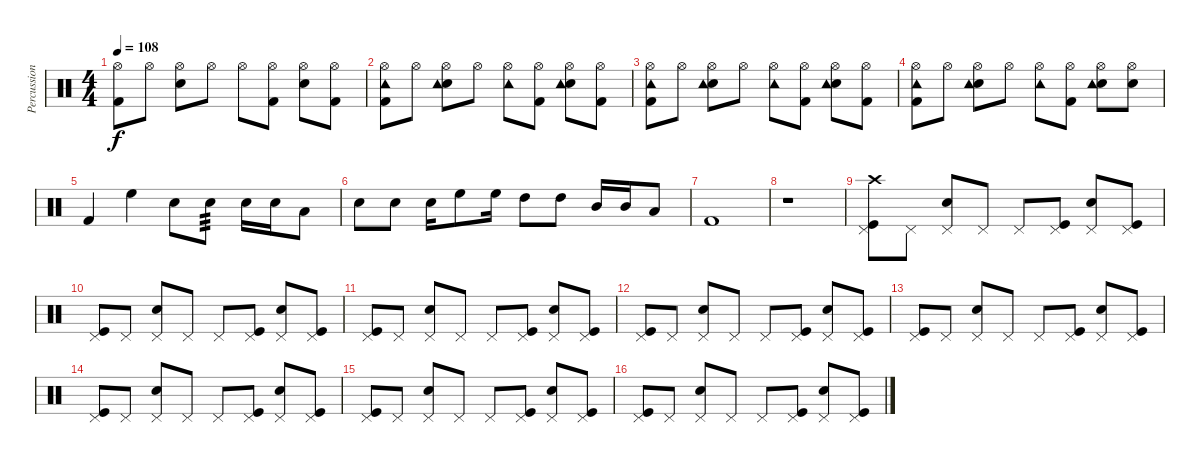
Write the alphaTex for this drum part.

\track ("Percussion" "Percussion") {instrument percussion}
\staff {score}
\articulation defaults
\ts (4 4)
\tempo 108
\clef neutral
\ks c
("Kick (hit) 2" "Hi-Hat (open)").8{dy f} "Hi-Hat (open)".8 ("Hi-Hat (open)" "Electric Snare (hit)").8 "Hi-Hat (open)".8 "Hi-Hat (open)".8 ("Hi-Hat (open)" "Kick (hit) 2").8 ("Hi-Hat (open)" "Electric Snare (hit)").8 ("Hi-Hat (open)" "Kick (hit) 2").8 |
("Kick (hit) 2" "Hi-Hat (open)" "Tambourine (hit)").8 "Hi-Hat (open)".8 ("Hi-Hat (open)" "Electric Snare (hit)" "Tambourine (hit)").8 "Hi-Hat (open)".8 ("Hi-Hat (open)" "Tambourine (hit)").8 ("Hi-Hat (open)" "Kick (hit) 2").8 ("Hi-Hat (open)" "Electric Snare (hit)" "Tambourine (hit)").8 ("Hi-Hat (open)" "Kick (hit) 2").8 |
("Kick (hit) 2" "Hi-Hat (open)" "Tambourine (hit)").8 "Hi-Hat (open)".8 ("Hi-Hat (open)" "Electric Snare (hit)" "Tambourine (hit)").8 "Hi-Hat (open)".8 ("Hi-Hat (open)" "Tambourine (hit)").8 ("Hi-Hat (open)" "Kick (hit) 2").8 ("Hi-Hat (open)" "Electric Snare (hit)" "Tambourine (hit)").8 ("Hi-Hat (open)" "Kick (hit) 2").8 |
("Kick (hit) 2" "Hi-Hat (open)" "Tambourine (hit)").8 "Hi-Hat (open)".8 ("Hi-Hat (open)" "Electric Snare (hit)" "Tambourine (hit)").8 "Hi-Hat (open)".8 ("Hi-Hat (open)" "Tambourine (hit)").8 ("Hi-Hat (open)" "Kick (hit) 2").8 ("Hi-Hat (open)" "Electric Snare (hit)" "Tambourine (hit)").8 ("Hi-Hat (open)" "Electric Snare (hit)").8 |
"Kick (hit) 2".4 "High Floor Tom (hit)".4 "Electric Snare (hit)".8 "Electric Snare (hit)".8{tp 3} "Electric Snare (hit)".16 "Electric Snare (hit)".16 "Low Tom (hit)".8 |
"Electric Snare (hit)".8 "Electric Snare (hit)".8 "Electric Snare (hit)".16 "High Floor Tom (hit)".8 "High Floor Tom (hit)".16 "High Tom (hit)".8 "High Tom (hit)".8 "Mid Tom (hit)".16 "Mid Tom (hit)".16 "Low Tom (hit)".8 |
"Kick (hit) 2".1 |
r.1 |
("Kick (hit)" "Pedal Hi-Hat (hit)" "Crash high (hit)").8 "Pedal Hi-Hat (hit)".8 ("Pedal Hi-Hat (hit)" "Electric Snare (hit)").8 "Pedal Hi-Hat (hit)".8 "Pedal Hi-Hat (hit)".8 ("Pedal Hi-Hat (hit)" "Kick (hit)").8 ("Pedal Hi-Hat (hit)" "Electric Snare (hit)").8 ("Pedal Hi-Hat (hit)" "Kick (hit)").8 |
("Kick (hit)" "Pedal Hi-Hat (hit)").8 "Pedal Hi-Hat (hit)".8 ("Pedal Hi-Hat (hit)" "Electric Snare (hit)").8 "Pedal Hi-Hat (hit)".8 "Pedal Hi-Hat (hit)".8 ("Pedal Hi-Hat (hit)" "Kick (hit)").8 ("Pedal Hi-Hat (hit)" "Electric Snare (hit)").8 ("Pedal Hi-Hat (hit)" "Kick (hit)").8 |
("Kick (hit)" "Pedal Hi-Hat (hit)").8 "Pedal Hi-Hat (hit)".8 ("Pedal Hi-Hat (hit)" "Electric Snare (hit)").8 "Pedal Hi-Hat (hit)".8 "Pedal Hi-Hat (hit)".8 ("Pedal Hi-Hat (hit)" "Kick (hit)").8 ("Pedal Hi-Hat (hit)" "Electric Snare (hit)").8 ("Pedal Hi-Hat (hit)" "Kick (hit)").8 |
("Kick (hit)" "Pedal Hi-Hat (hit)").8 "Pedal Hi-Hat (hit)".8 ("Pedal Hi-Hat (hit)" "Electric Snare (hit)").8 "Pedal Hi-Hat (hit)".8 "Pedal Hi-Hat (hit)".8 ("Pedal Hi-Hat (hit)" "Kick (hit)").8 ("Pedal Hi-Hat (hit)" "Electric Snare (hit)").8 ("Pedal Hi-Hat (hit)" "Kick (hit)").8 |
("Kick (hit)" "Pedal Hi-Hat (hit)").8 "Pedal Hi-Hat (hit)".8 ("Pedal Hi-Hat (hit)" "Electric Snare (hit)").8 "Pedal Hi-Hat (hit)".8 "Pedal Hi-Hat (hit)".8 ("Pedal Hi-Hat (hit)" "Kick (hit)").8 ("Pedal Hi-Hat (hit)" "Electric Snare (hit)").8 ("Pedal Hi-Hat (hit)" "Kick (hit)").8 |
("Kick (hit)" "Pedal Hi-Hat (hit)").8 "Pedal Hi-Hat (hit)".8 ("Pedal Hi-Hat (hit)" "Electric Snare (hit)").8 "Pedal Hi-Hat (hit)".8 "Pedal Hi-Hat (hit)".8 ("Pedal Hi-Hat (hit)" "Kick (hit)").8 ("Pedal Hi-Hat (hit)" "Electric Snare (hit)").8 ("Pedal Hi-Hat (hit)" "Kick (hit)").8 |
("Kick (hit)" "Pedal Hi-Hat (hit)").8 "Pedal Hi-Hat (hit)".8 ("Pedal Hi-Hat (hit)" "Electric Snare (hit)").8 "Pedal Hi-Hat (hit)".8 "Pedal Hi-Hat (hit)".8 ("Pedal Hi-Hat (hit)" "Kick (hit)").8 ("Pedal Hi-Hat (hit)" "Electric Snare (hit)").8 ("Pedal Hi-Hat (hit)" "Kick (hit)").8 |
("Kick (hit)" "Pedal Hi-Hat (hit)").8 "Pedal Hi-Hat (hit)".8 ("Pedal Hi-Hat (hit)" "Electric Snare (hit)").8 "Pedal Hi-Hat (hit)".8 "Pedal Hi-Hat (hit)".8 ("Pedal Hi-Hat (hit)" "Kick (hit)").8 ("Pedal Hi-Hat (hit)" "Electric Snare (hit)").8 ("Pedal Hi-Hat (hit)" "Kick (hit)").8
